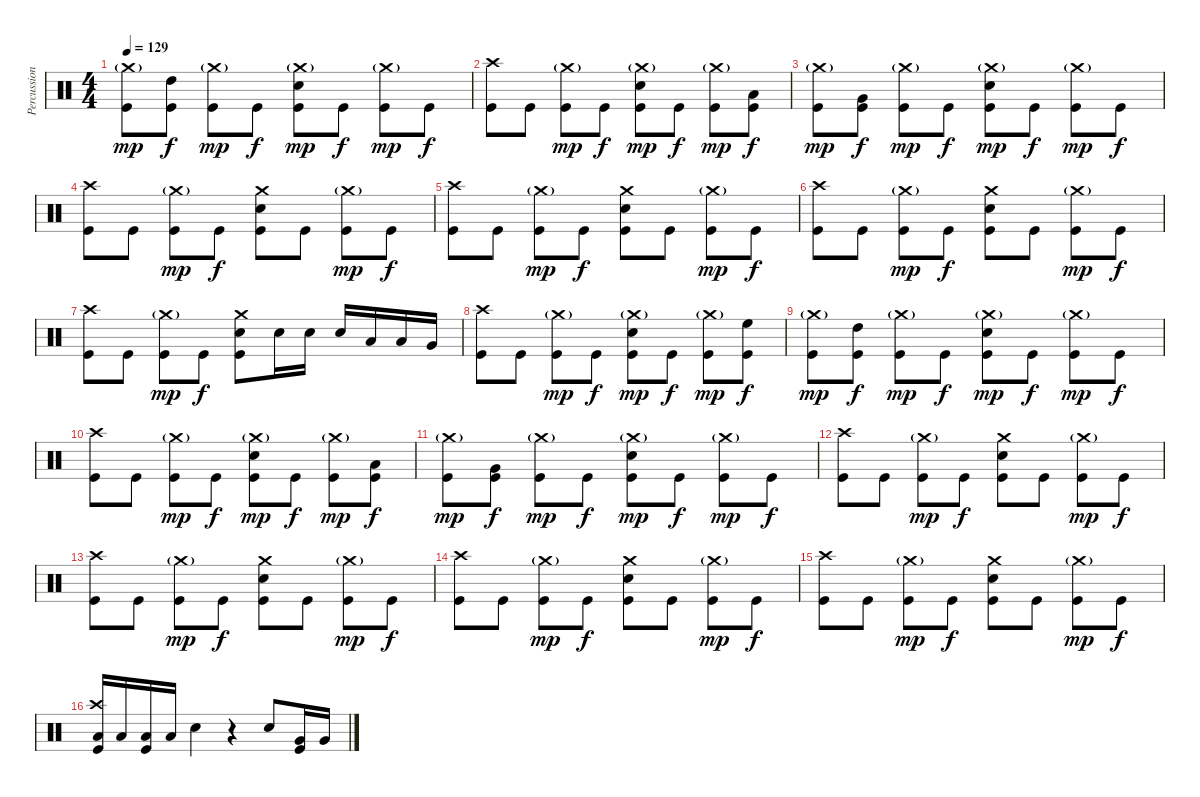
\track ("Percussion" "Percussion") {instrument percussion}
\staff {score}
\articulation defaults
\ts (4 4)
\tempo 129
\clef neutral
\ks c
("Crash medium (hit)"{g} "Kick (hit)").8{dy mp} ("High Tom (hit)" "Kick (hit)").8{dy f} ("Crash medium (hit)"{g} "Kick (hit)").8{dy mp} "Kick (hit)".8{dy f} ("Crash medium (hit)"{g} "Electric Snare (hit)" "Kick (hit)").8{dy mp} "Kick (hit)".8{dy f} ("Crash medium (hit)"{g} "Kick (hit)").8{dy mp} "Kick (hit)".8{dy f} |
("Crash high (hit)" "Kick (hit)").8 "Kick (hit)".8 ("Crash medium (hit)"{g} "Kick (hit)").8{dy mp} "Kick (hit)".8{dy f} ("Crash medium (hit)"{g} "Electric Snare (hit)" "Kick (hit)").8{dy mp} "Kick (hit)".8{dy f} ("Crash medium (hit)"{g} "Kick (hit)").8{dy mp} ("Low Tom (hit)" "Kick (hit)").8{dy f} |
("Crash medium (hit)"{g} "Kick (hit)").8{dy mp} ("Very Low Tom (hit)" "Kick (hit)").8{dy f} ("Crash medium (hit)"{g} "Kick (hit)").8{dy mp} "Kick (hit)".8{dy f} ("Crash medium (hit)"{g} "Electric Snare (hit)" "Kick (hit)").8{dy mp} "Kick (hit)".8{dy f} ("Crash medium (hit)"{g} "Kick (hit)").8{dy mp} "Kick (hit)".8{dy f} |
("Crash high (hit)" "Kick (hit)").8 "Kick (hit)".8 ("Crash medium (hit)"{g} "Kick (hit)").8{dy mp} "Kick (hit)".8{dy f} ("Crash medium (hit)" "Electric Snare (hit)" "Kick (hit)").8 "Kick (hit)".8 ("Crash medium (hit)"{g} "Kick (hit)").8{dy mp} "Kick (hit)".8{dy f} |
("Crash high (hit)" "Kick (hit)").8 "Kick (hit)".8 ("Crash medium (hit)"{g} "Kick (hit)").8{dy mp} "Kick (hit)".8{dy f} ("Crash medium (hit)" "Electric Snare (hit)" "Kick (hit)").8 "Kick (hit)".8 ("Crash medium (hit)"{g} "Kick (hit)").8{dy mp} "Kick (hit)".8{dy f} |
("Crash high (hit)" "Kick (hit)").8 "Kick (hit)".8 ("Crash medium (hit)"{g} "Kick (hit)").8{dy mp} "Kick (hit)".8{dy f} ("Crash medium (hit)" "Electric Snare (hit)" "Kick (hit)").8 "Kick (hit)".8 ("Crash medium (hit)"{g} "Kick (hit)").8{dy mp} "Kick (hit)".8{dy f} |
("Crash high (hit)" "Kick (hit)").8 "Kick (hit)".8 ("Crash medium (hit)"{g} "Kick (hit)").8{dy mp} "Kick (hit)".8{dy f} ("Crash medium (hit)" "Electric Snare (hit)" "Kick (hit)").8 "Electric Snare (hit)".16 "Electric Snare (hit)".16 "Electric Snare (hit)".16 "Low Tom (hit)".16 "Low Tom (hit)".16 "Very Low Tom (hit)".16 |
("Crash high (hit)" "Kick (hit)").8 "Kick (hit)".8 ("Crash medium (hit)"{g} "Kick (hit)").8{dy mp} "Kick (hit)".8{dy f} ("Crash medium (hit)"{g} "Electric Snare (hit)" "Kick (hit)").8{dy mp} "Kick (hit)".8{dy f} ("Crash medium (hit)"{g} "Kick (hit)").8{dy mp} ("High Floor Tom (hit)" "Kick (hit)").8{dy f} |
("Crash medium (hit)"{g} "Kick (hit)").8{dy mp} ("High Tom (hit)" "Kick (hit)").8{dy f} ("Crash medium (hit)"{g} "Kick (hit)").8{dy mp} "Kick (hit)".8{dy f} ("Crash medium (hit)"{g} "Electric Snare (hit)" "Kick (hit)").8{dy mp} "Kick (hit)".8{dy f} ("Crash medium (hit)"{g} "Kick (hit)").8{dy mp} "Kick (hit)".8{dy f} |
("Crash high (hit)" "Kick (hit)").8 "Kick (hit)".8 ("Crash medium (hit)"{g} "Kick (hit)").8{dy mp} "Kick (hit)".8{dy f} ("Crash medium (hit)"{g} "Electric Snare (hit)" "Kick (hit)").8{dy mp} "Kick (hit)".8{dy f} ("Crash medium (hit)"{g} "Kick (hit)").8{dy mp} ("Low Tom (hit)" "Kick (hit)").8{dy f} |
("Crash medium (hit)"{g} "Kick (hit)").8{dy mp} ("Very Low Tom (hit)" "Kick (hit)").8{dy f} ("Crash medium (hit)"{g} "Kick (hit)").8{dy mp} "Kick (hit)".8{dy f} ("Crash medium (hit)"{g} "Electric Snare (hit)" "Kick (hit)").8{dy mp} "Kick (hit)".8{dy f} ("Crash medium (hit)"{g} "Kick (hit)").8{dy mp} "Kick (hit)".8{dy f} |
("Crash high (hit)" "Kick (hit)").8 "Kick (hit)".8 ("Crash medium (hit)"{g} "Kick (hit)").8{dy mp} "Kick (hit)".8{dy f} ("Crash medium (hit)" "Electric Snare (hit)" "Kick (hit)").8 "Kick (hit)".8 ("Crash medium (hit)"{g} "Kick (hit)").8{dy mp} "Kick (hit)".8{dy f} |
("Crash high (hit)" "Kick (hit)").8 "Kick (hit)".8 ("Crash medium (hit)"{g} "Kick (hit)").8{dy mp} "Kick (hit)".8{dy f} ("Crash medium (hit)" "Electric Snare (hit)" "Kick (hit)").8 "Kick (hit)".8 ("Crash medium (hit)"{g} "Kick (hit)").8{dy mp} "Kick (hit)".8{dy f} |
("Crash high (hit)" "Kick (hit)").8 "Kick (hit)".8 ("Crash medium (hit)"{g} "Kick (hit)").8{dy mp} "Kick (hit)".8{dy f} ("Crash medium (hit)" "Electric Snare (hit)" "Kick (hit)").8 "Kick (hit)".8 ("Crash medium (hit)"{g} "Kick (hit)").8{dy mp} "Kick (hit)".8{dy f} |
("Crash high (hit)" "Kick (hit)").8 "Kick (hit)".8 ("Crash medium (hit)"{g} "Kick (hit)").8{dy mp} "Kick (hit)".8{dy f} ("Crash medium (hit)" "Electric Snare (hit)" "Kick (hit)").8 "Kick (hit)".8 ("Crash medium (hit)"{g} "Kick (hit)").8{dy mp} "Kick (hit)".8{dy f} |
("Crash high (hit)" "Low Tom (hit)" "Kick (hit)").16 "Low Tom (hit)".16 ("Low Floor Tom (hit)" "Kick (hit)").16 "Low Floor Tom (hit)".16 "Electric Snare (hit)".4 r.4 "Electric Snare (hit)".8 ("Very Low Tom (hit)" "Kick (hit)").16 "Very Low Tom (hit)".16
